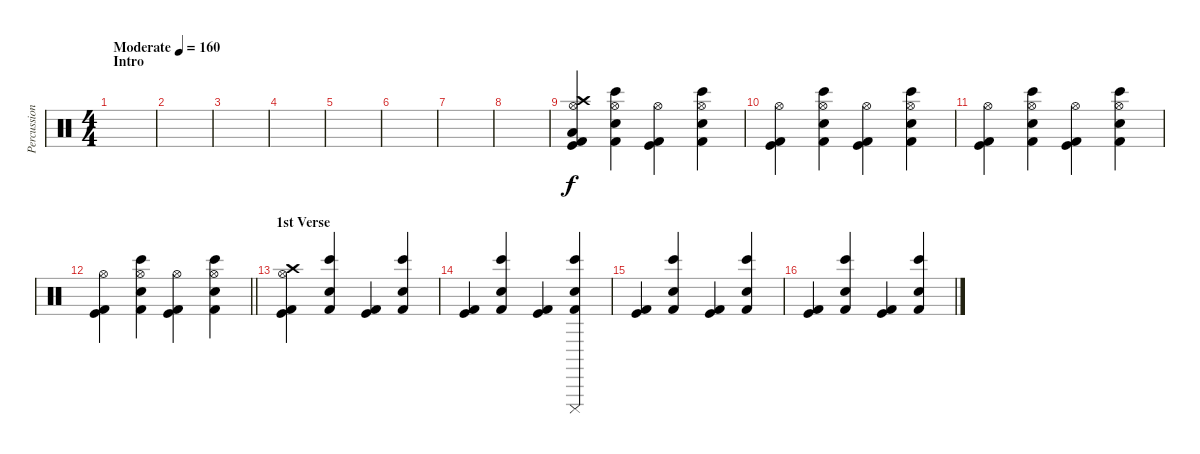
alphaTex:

\track ("Percussion" "Percussion") {instrument percussion}
\staff {score}
\articulation defaults
\ts (4 4)
\section ("" "Intro")
\tempo (160 "Moderate")
\clef neutral
\ks c
|
|
|
|
|
|
|
|
("Low Floor Tom (hit)" "Crash high (hit)" "Hi-Hat (open)" "Kick (hit)" "Kick (hit) 2").4 ("Hi-Hat (open)" "Bongo High (hit)" "Hand Clap (hit)" "Kick (hit) 2").4{dy f} ("Hi-Hat (open)" "Kick (hit)" "Kick (hit) 2").4 ("Hi-Hat (open)" "Bongo High (hit)" "Hand Clap (hit)" "Kick (hit) 2").4 |
("Hi-Hat (open)" "Kick (hit)" "Kick (hit) 2").4 ("Hi-Hat (open)" "Bongo High (hit)" "Hand Clap (hit)" "Kick (hit) 2").4 ("Hi-Hat (open)" "Kick (hit)" "Kick (hit) 2").4 ("Hi-Hat (open)" "Bongo High (hit)" "Hand Clap (hit)" "Kick (hit) 2").4 |
("Hi-Hat (open)" "Kick (hit)" "Kick (hit) 2").4 ("Hi-Hat (open)" "Bongo High (hit)" "Hand Clap (hit)" "Kick (hit) 2").4 ("Hi-Hat (open)" "Kick (hit)" "Kick (hit) 2").4 ("Hi-Hat (open)" "Bongo High (hit)" "Hand Clap (hit)" "Kick (hit) 2").4 |
\barLineRight lightlight
("Hi-Hat (open)" "Kick (hit)" "Kick (hit) 2").4 ("Hi-Hat (open)" "Bongo High (hit)" "Hand Clap (hit)" "Kick (hit) 2").4 ("Hi-Hat (open)" "Kick (hit)" "Kick (hit) 2").4 ("Hi-Hat (open)" "Bongo High (hit)" "Hand Clap (hit)" "Kick (hit) 2").4 |
\section ("" "1st Verse")
("Crash high (hit)" "Hi-Hat (open)" "Kick (hit)" "Kick (hit) 2").4 ("Bongo High (hit)" "Hand Clap (hit)" "Kick (hit) 2").4 ("Kick (hit)" "Kick (hit) 2").4 ("Bongo High (hit)" "Hand Clap (hit)" "Kick (hit) 2").4 |
("Kick (hit)" "Kick (hit) 2").4 ("Bongo High (hit)" "Hand Clap (hit)" "Kick (hit) 2").4 ("Kick (hit)" "Kick (hit) 2").4 ("Cuica (mute)" "Bongo High (hit)" "Hand Clap (hit)" "Kick (hit) 2").4 |
("Kick (hit)" "Kick (hit) 2").4 ("Bongo High (hit)" "Hand Clap (hit)" "Kick (hit) 2").4 ("Kick (hit)" "Kick (hit) 2").4 ("Bongo High (hit)" "Hand Clap (hit)" "Kick (hit) 2").4 |
("Kick (hit)" "Kick (hit) 2").4 ("Bongo High (hit)" "Hand Clap (hit)" "Kick (hit) 2").4 ("Kick (hit)" "Kick (hit) 2").4 ("Bongo High (hit)" "Hand Clap (hit)" "Kick (hit) 2").4
